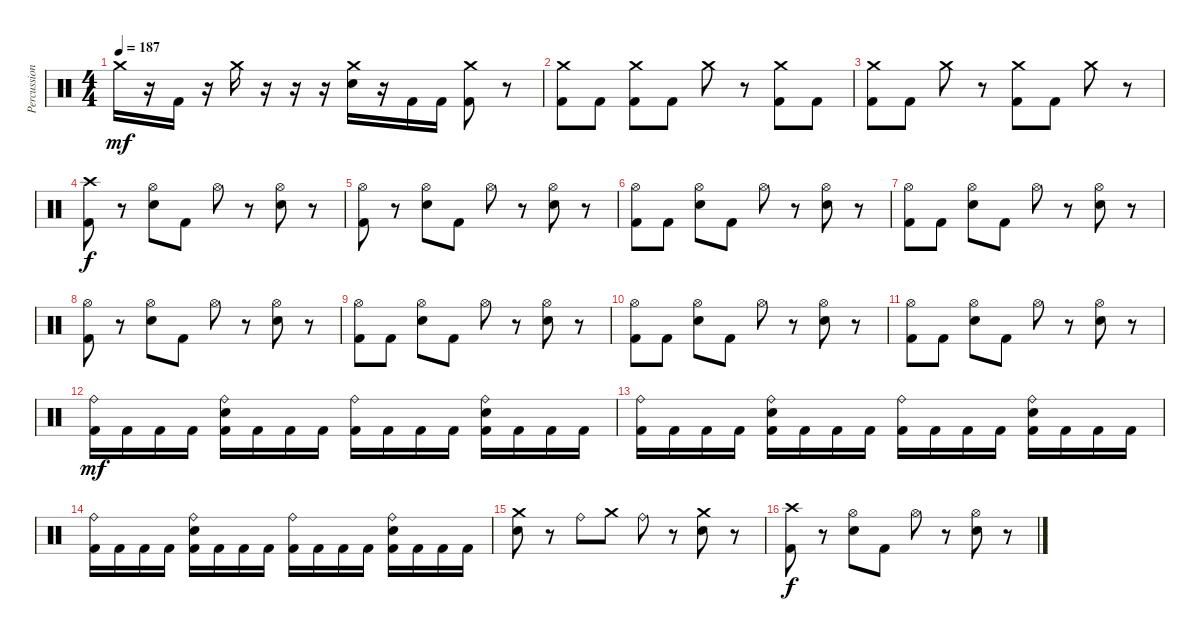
\track ("Percussion" "Percussion") {instrument percussion}
\staff {score}
\articulation defaults
\ts (4 4)
\tempo 187
\clef neutral
\ks c "Crash medium (hit)".16{dy mf}
r.16 "Kick (hit) 2".16 r.16 "Crash medium (hit)".16 r.16 r.16 r.16 ("Crash medium (hit)" "Electric Snare (hit)").16 r.16 "Kick (hit) 2".16 "Kick (hit) 2".16 ("Crash medium (hit)" "Kick (hit) 2").8 r.8 |
("Crash medium (hit)" "Kick (hit) 2").8 "Kick (hit) 2".8 ("Crash medium (hit)" "Kick (hit) 2").8 "Kick (hit) 2".8 "Crash medium (hit)".8 r.8 ("Crash medium (hit)" "Kick (hit) 2").8 "Kick (hit) 2".8 |
("Crash medium (hit)" "Kick (hit) 2").8 "Kick (hit) 2".8 "Crash medium (hit)".8 r.8 ("Crash medium (hit)" "Kick (hit) 2").8 "Kick (hit) 2".8 "Crash medium (hit)".8 r.8 |
("Crash high (hit)" "Kick (hit) 2").8{dy f} r.8 ("Hi-Hat (open)" "Electric Snare (hit)").8 "Kick (hit) 2".8 "Hi-Hat (open)".8 r.8 ("Hi-Hat (open)" "Electric Snare (hit)").8 r.8 |
("Hi-Hat (open)" "Kick (hit) 2").8 r.8 ("Hi-Hat (open)" "Electric Snare (hit)").8 "Kick (hit) 2".8 "Hi-Hat (open)".8 r.8 ("Hi-Hat (open)" "Electric Snare (hit)").8 r.8 |
("Hi-Hat (open)" "Kick (hit) 2").8 "Kick (hit) 2".8 ("Hi-Hat (open)" "Electric Snare (hit)").8 "Kick (hit) 2".8 "Hi-Hat (open)".8 r.8 ("Hi-Hat (open)" "Electric Snare (hit)").8 r.8 |
("Hi-Hat (open)" "Kick (hit) 2").8 "Kick (hit) 2".8 ("Hi-Hat (open)" "Electric Snare (hit)").8 "Kick (hit) 2".8 "Hi-Hat (open)".8 r.8 ("Hi-Hat (open)" "Electric Snare (hit)").8 r.8 |
("Hi-Hat (open)" "Kick (hit) 2").8 r.8 ("Hi-Hat (open)" "Electric Snare (hit)").8 "Kick (hit) 2".8 "Hi-Hat (open)".8 r.8 ("Hi-Hat (open)" "Electric Snare (hit)").8 r.8 |
("Hi-Hat (open)" "Kick (hit) 2").8 "Kick (hit) 2".8 ("Hi-Hat (open)" "Electric Snare (hit)").8 "Kick (hit) 2".8 "Hi-Hat (open)".8 r.8 ("Hi-Hat (open)" "Electric Snare (hit)").8 r.8 |
("Hi-Hat (open)" "Kick (hit) 2").8 "Kick (hit) 2".8 ("Hi-Hat (open)" "Electric Snare (hit)").8 "Kick (hit) 2".8 "Hi-Hat (open)".8 r.8 ("Hi-Hat (open)" "Electric Snare (hit)").8 r.8 |
("Hi-Hat (open)" "Kick (hit) 2").8 "Kick (hit) 2".8 ("Hi-Hat (open)" "Electric Snare (hit)").8 "Kick (hit) 2".8 "Hi-Hat (open)".8 r.8 ("Hi-Hat (open)" "Electric Snare (hit)").8 r.8 |
("Ride (bell)" "Kick (hit) 2").16{dy mf} "Kick (hit) 2".16 "Kick (hit) 2".16 "Kick (hit) 2".16 ("Ride (bell)" "Electric Snare (hit)" "Kick (hit) 2").16 "Kick (hit) 2".16 "Kick (hit) 2".16 "Kick (hit) 2".16 ("Ride (bell)" "Kick (hit) 2").16 "Kick (hit) 2".16 "Kick (hit) 2".16 "Kick (hit) 2".16 ("Ride (bell)" "Electric Snare (hit)" "Kick (hit) 2").16 "Kick (hit) 2".16 "Kick (hit) 2".16 "Kick (hit) 2".16 |
("Ride (bell)" "Kick (hit) 2").16 "Kick (hit) 2".16 "Kick (hit) 2".16 "Kick (hit) 2".16 ("Ride (bell)" "Electric Snare (hit)" "Kick (hit) 2").16 "Kick (hit) 2".16 "Kick (hit) 2".16 "Kick (hit) 2".16 ("Ride (bell)" "Kick (hit) 2").16 "Kick (hit) 2".16 "Kick (hit) 2".16 "Kick (hit) 2".16 ("Ride (bell)" "Electric Snare (hit)" "Kick (hit) 2").16 "Kick (hit) 2".16 "Kick (hit) 2".16 "Kick (hit) 2".16 |
("Ride (bell)" "Kick (hit) 2").16 "Kick (hit) 2".16 "Kick (hit) 2".16 "Kick (hit) 2".16 ("Ride (bell)" "Electric Snare (hit)" "Kick (hit) 2").16 "Kick (hit) 2".16 "Kick (hit) 2".16 "Kick (hit) 2".16 ("Ride (bell)" "Kick (hit) 2").16 "Kick (hit) 2".16 "Kick (hit) 2".16 "Kick (hit) 2".16 ("Ride (bell)" "Electric Snare (hit)" "Kick (hit) 2").16 "Kick (hit) 2".16 "Kick (hit) 2".16 "Kick (hit) 2".16 |
("Crash medium (hit)" "Electric Snare (hit)").8 r.8 "Ride (bell)".8 "Crash medium (hit)".8 "Ride (bell)".8 r.8 ("Crash medium (hit)" "Electric Snare (hit)").8 r.8 |
("Crash high (hit)" "Kick (hit) 2").8{dy f} r.8 ("Hi-Hat (open)" "Electric Snare (hit)").8 "Kick (hit) 2".8 "Hi-Hat (open)".8 r.8 ("Hi-Hat (open)" "Electric Snare (hit)").8 r.8
